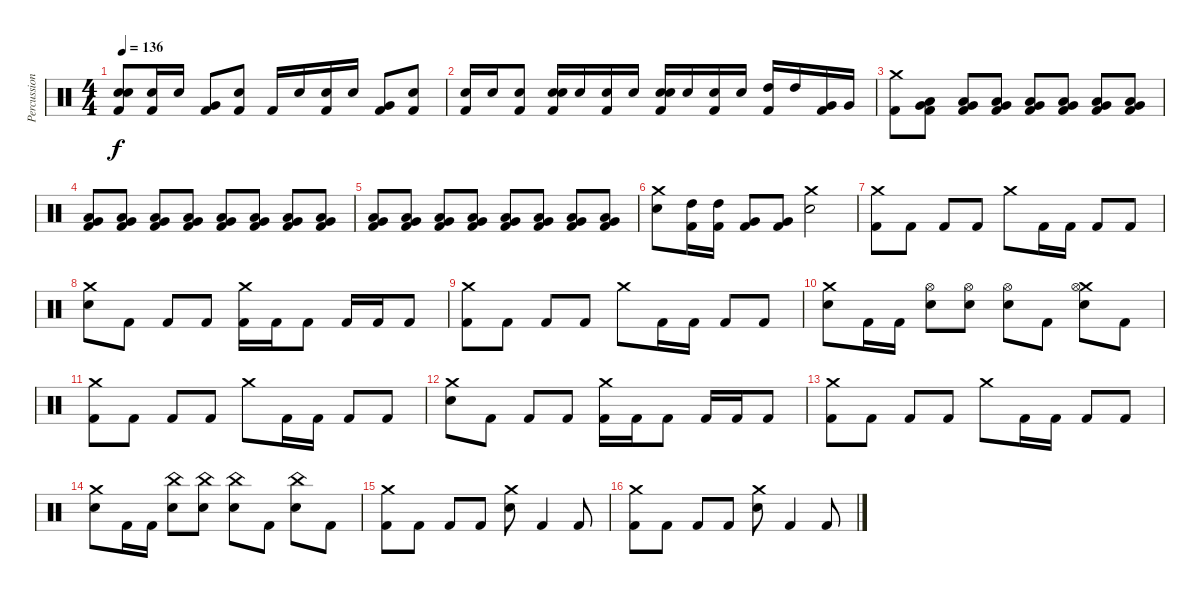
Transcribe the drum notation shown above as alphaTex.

\track ("Percussion" "Percussion") {instrument percussion}
\staff {score}
\articulation defaults
\ts (4 4)
\tempo 136
\clef neutral
\ks c
("Snare (hit) 2" "Snare (hit) 2" "Kick (hit) 2").8{dy f} ("Snare (hit) 2" "Kick (hit) 2").16 "Snare (hit) 2".16 ("Very Low Tom (hit)" "Kick (hit) 2").8 ("Snare (hit) 2" "Kick (hit) 2").8 "Kick (hit) 2".16 "Snare (hit) 2".16 ("Snare (hit) 2" "Kick (hit) 2").16 "Snare (hit) 2".16 ("Very Low Tom (hit)" "Kick (hit) 2").8 ("Snare (hit) 2" "Kick (hit) 2").8 |
("Snare (hit) 2" "Kick (hit) 2").16 "Snare (hit) 2".16 ("Snare (hit) 2" "Kick (hit) 2").8 ("Electric Snare (hit)" "Snare (hit) 2" "Kick (hit) 2").16 "Snare (hit) 2".16 ("Snare (hit) 2" "Kick (hit) 2").16 "Snare (hit) 2".16 ("Electric Snare (hit)" "Snare (hit) 2" "Kick (hit) 2").16 "Snare (hit) 2".16 ("Snare (hit) 2" "Kick (hit) 2").16 "Snare (hit) 2".16 ("High Tom (hit)" "Kick (hit) 2").16 "High Tom (hit)".16 ("Very Low Tom (hit)" "Kick (hit) 2").16 "Very Low Tom (hit)".16 |
("Crash medium (hit)" "Kick (hit) 2").8 ("Very Low Tom (hit)" "Low Tom (hit)" "Kick (hit) 2").8 ("Very Low Tom (hit)" "Low Tom (hit)" "Kick (hit) 2").8 ("Very Low Tom (hit)" "Low Tom (hit)" "Kick (hit) 2").8 ("Very Low Tom (hit)" "Low Tom (hit)" "Kick (hit) 2").8 ("Very Low Tom (hit)" "Low Tom (hit)" "Kick (hit) 2").8 ("Very Low Tom (hit)" "Low Tom (hit)" "Kick (hit) 2").8 ("Very Low Tom (hit)" "Low Tom (hit)" "Kick (hit) 2").8 |
("Very Low Tom (hit)" "Low Tom (hit)" "Kick (hit) 2").8 ("Very Low Tom (hit)" "Low Tom (hit)" "Kick (hit) 2").8 ("Very Low Tom (hit)" "Low Tom (hit)" "Kick (hit) 2").8 ("Very Low Tom (hit)" "Low Tom (hit)" "Kick (hit) 2").8 ("Very Low Tom (hit)" "Low Tom (hit)" "Kick (hit) 2").8 ("Very Low Tom (hit)" "Low Tom (hit)" "Kick (hit) 2").8 ("Very Low Tom (hit)" "Low Tom (hit)" "Kick (hit) 2").8 ("Very Low Tom (hit)" "Low Tom (hit)" "Kick (hit) 2").8 |
("Very Low Tom (hit)" "Low Tom (hit)" "Kick (hit) 2").8 ("Very Low Tom (hit)" "Low Tom (hit)" "Kick (hit) 2").8 ("Very Low Tom (hit)" "Low Tom (hit)" "Kick (hit) 2").8 ("Very Low Tom (hit)" "Low Tom (hit)" "Kick (hit) 2").8 ("Very Low Tom (hit)" "Low Tom (hit)" "Kick (hit) 2").8 ("Very Low Tom (hit)" "Low Tom (hit)" "Kick (hit) 2").8 ("Very Low Tom (hit)" "Low Tom (hit)" "Kick (hit) 2").8 ("Very Low Tom (hit)" "Low Tom (hit)" "Kick (hit) 2").8 |
("Crash medium (hit)" "Snare (hit) 2").8 ("High Tom (hit)" "Kick (hit) 2").16 ("High Tom (hit)" "Kick (hit) 2").16 ("Very Low Tom (hit)" "Kick (hit) 2").8 ("Very Low Tom (hit)" "Kick (hit) 2").8 ("Crash medium (hit)" "Snare (hit) 2").2 |
("Crash medium (hit)" "Kick (hit) 2").8 "Kick (hit) 2".8 "Kick (hit) 2".8 "Kick (hit) 2".8 "Crash medium (hit)".8 "Kick (hit) 2".16 "Kick (hit) 2".16 "Kick (hit) 2".8 "Kick (hit) 2".8 |
("Crash medium (hit)" "Snare (hit) 2").8 "Kick (hit) 2".8 "Kick (hit) 2".8 "Kick (hit) 2".8 ("Crash medium (hit)" "Kick (hit) 2").16 "Kick (hit) 2".16 "Kick (hit) 2".8 "Kick (hit) 2".16 "Kick (hit) 2".16 "Kick (hit) 2".8 |
("Crash medium (hit)" "Kick (hit) 2").8 "Kick (hit) 2".8 "Kick (hit) 2".8 "Kick (hit) 2".8 "Crash medium (hit)".8 "Kick (hit) 2".16 "Kick (hit) 2".16 "Kick (hit) 2".8 "Kick (hit) 2".8 |
("Crash medium (hit)" "Snare (hit) 2").8 "Kick (hit) 2".16 "Kick (hit) 2".16 ("Hi-Hat (open)" "Snare (hit) 2").8 ("Hi-Hat (open)" "Snare (hit) 2").8 ("Hi-Hat (open)" "Snare (hit) 2").8 "Kick (hit) 2".8 ("Crash medium (hit)" "Hi-Hat (open)" "Snare (hit) 2").8 "Kick (hit) 2".8 |
("Crash medium (hit)" "Kick (hit) 2").8 "Kick (hit) 2".8 "Kick (hit) 2".8 "Kick (hit) 2".8 "Crash medium (hit)".8 "Kick (hit) 2".16 "Kick (hit) 2".16 "Kick (hit) 2".8 "Kick (hit) 2".8 |
("Crash medium (hit)" "Snare (hit) 2").8 "Kick (hit) 2".8 "Kick (hit) 2".8 "Kick (hit) 2".8 ("Crash medium (hit)" "Kick (hit) 2").16 "Kick (hit) 2".16 "Kick (hit) 2".8 "Kick (hit) 2".16 "Kick (hit) 2".16 "Kick (hit) 2".8 |
("Crash medium (hit)" "Kick (hit) 2").8 "Kick (hit) 2".8 "Kick (hit) 2".8 "Kick (hit) 2".8 "Crash medium (hit)".8 "Kick (hit) 2".16 "Kick (hit) 2".16 "Kick (hit) 2".8 "Kick (hit) 2".8 |
("Crash medium (hit)" "Snare (hit) 2").8 "Kick (hit) 2".16 "Kick (hit) 2".16 ("China (hit)" "Snare (hit) 2").8 ("China (hit)" "Snare (hit) 2").8 ("China (hit)" "Snare (hit) 2").8 "Kick (hit) 2".8 ("China (hit)" "Snare (hit) 2").8 "Kick (hit) 2".8 |
("Crash medium (hit)" "Kick (hit) 2").8 "Kick (hit) 2".8 "Kick (hit) 2".8 "Kick (hit) 2".8 ("Crash medium (hit)" "Snare (hit) 2").8 "Kick (hit) 2".4 "Kick (hit) 2".8 |
("Crash medium (hit)" "Kick (hit) 2").8 "Kick (hit) 2".8 "Kick (hit) 2".8 "Kick (hit) 2".8 ("Crash medium (hit)" "Snare (hit) 2").8 "Kick (hit) 2".4 "Kick (hit) 2".8
